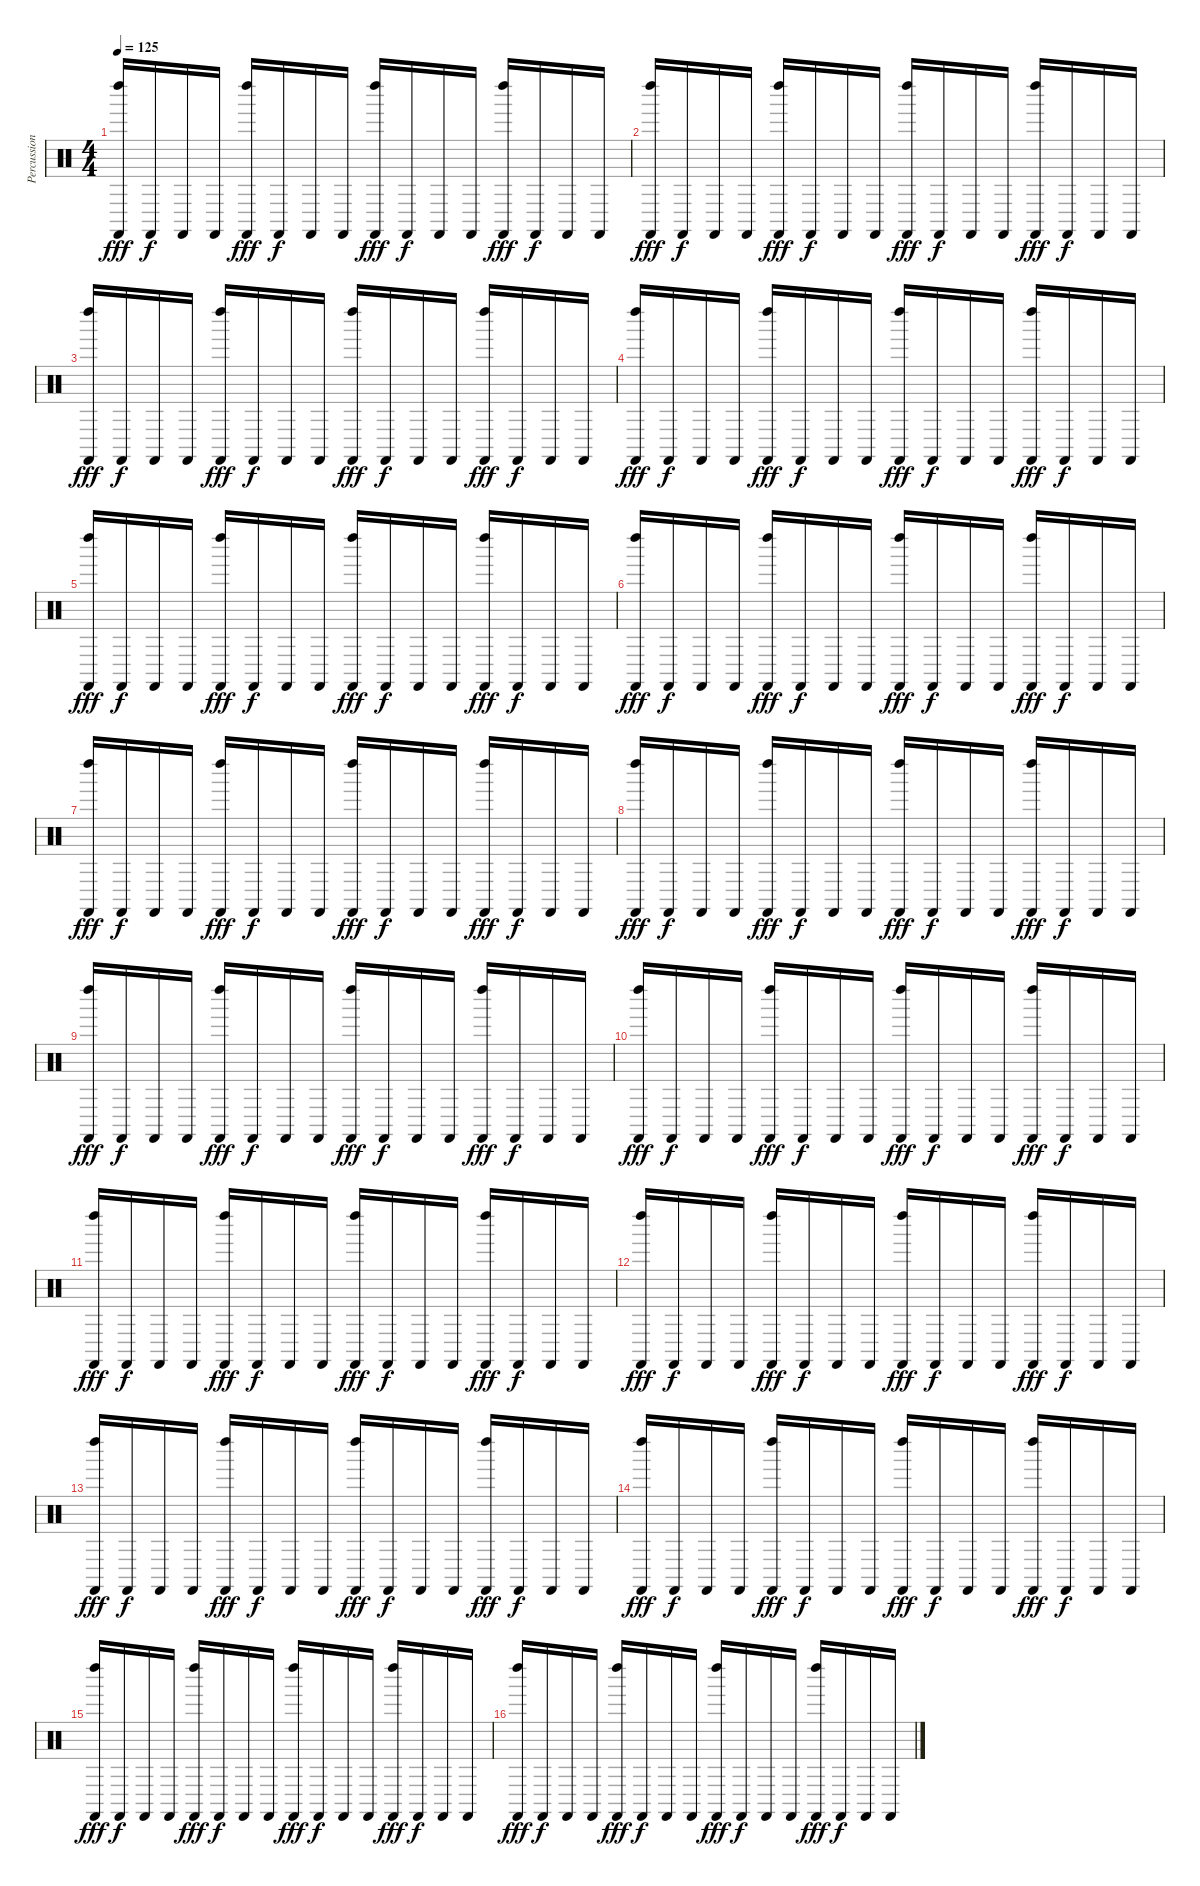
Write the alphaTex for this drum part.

\track ("Percussion Boris" "Percussion") {instrument percussion}
\staff {score}
\articulation defaults
\ts (4 4)
\tempo 125
\clef neutral
\ks c
("Castanets (hit)" "Left Maraca (hit)").16{dy fff} "Castanets (hit)".16{dy f} "Castanets (hit)".16 "Castanets (hit)".16 ("Castanets (hit)" "Left Maraca (hit)").16{dy fff} "Castanets (hit)".16{dy f} "Castanets (hit)".16 "Castanets (hit)".16 ("Castanets (hit)" "Left Maraca (hit)").16{dy fff} "Castanets (hit)".16{dy f} "Castanets (hit)".16 "Castanets (hit)".16 ("Castanets (hit)" "Left Maraca (hit)").16{dy fff} "Castanets (hit)".16{dy f} "Castanets (hit)".16 "Castanets (hit)".16 |
("Castanets (hit)" "Left Maraca (hit)").16{dy fff} "Castanets (hit)".16{dy f} "Castanets (hit)".16 "Castanets (hit)".16 ("Castanets (hit)" "Left Maraca (hit)").16{dy fff} "Castanets (hit)".16{dy f} "Castanets (hit)".16 "Castanets (hit)".16 ("Castanets (hit)" "Left Maraca (hit)").16{dy fff} "Castanets (hit)".16{dy f} "Castanets (hit)".16 "Castanets (hit)".16 ("Castanets (hit)" "Left Maraca (hit)").16{dy fff} "Castanets (hit)".16{dy f} "Castanets (hit)".16 "Castanets (hit)".16 |
("Castanets (hit)" "Left Maraca (hit)").16{dy fff} "Castanets (hit)".16{dy f} "Castanets (hit)".16 "Castanets (hit)".16 ("Castanets (hit)" "Left Maraca (hit)").16{dy fff} "Castanets (hit)".16{dy f} "Castanets (hit)".16 "Castanets (hit)".16 ("Castanets (hit)" "Left Maraca (hit)").16{dy fff} "Castanets (hit)".16{dy f} "Castanets (hit)".16 "Castanets (hit)".16 ("Castanets (hit)" "Left Maraca (hit)").16{dy fff} "Castanets (hit)".16{dy f} "Castanets (hit)".16 "Castanets (hit)".16 |
("Castanets (hit)" "Left Maraca (hit)").16{dy fff} "Castanets (hit)".16{dy f} "Castanets (hit)".16 "Castanets (hit)".16 ("Castanets (hit)" "Left Maraca (hit)").16{dy fff} "Castanets (hit)".16{dy f} "Castanets (hit)".16 "Castanets (hit)".16 ("Castanets (hit)" "Left Maraca (hit)").16{dy fff} "Castanets (hit)".16{dy f} "Castanets (hit)".16 "Castanets (hit)".16 ("Castanets (hit)" "Left Maraca (hit)").16{dy fff} "Castanets (hit)".16{dy f} "Castanets (hit)".16 "Castanets (hit)".16 |
("Castanets (hit)" "Left Maraca (hit)").16{dy fff} "Castanets (hit)".16{dy f} "Castanets (hit)".16 "Castanets (hit)".16 ("Castanets (hit)" "Left Maraca (hit)").16{dy fff} "Castanets (hit)".16{dy f} "Castanets (hit)".16 "Castanets (hit)".16 ("Castanets (hit)" "Left Maraca (hit)").16{dy fff} "Castanets (hit)".16{dy f} "Castanets (hit)".16 "Castanets (hit)".16 ("Castanets (hit)" "Left Maraca (hit)").16{dy fff} "Castanets (hit)".16{dy f} "Castanets (hit)".16 "Castanets (hit)".16 |
("Castanets (hit)" "Left Maraca (hit)").16{dy fff} "Castanets (hit)".16{dy f} "Castanets (hit)".16 "Castanets (hit)".16 ("Castanets (hit)" "Left Maraca (hit)").16{dy fff} "Castanets (hit)".16{dy f} "Castanets (hit)".16 "Castanets (hit)".16 ("Castanets (hit)" "Left Maraca (hit)").16{dy fff} "Castanets (hit)".16{dy f} "Castanets (hit)".16 "Castanets (hit)".16 ("Castanets (hit)" "Left Maraca (hit)").16{dy fff} "Castanets (hit)".16{dy f} "Castanets (hit)".16 "Castanets (hit)".16 |
("Castanets (hit)" "Left Maraca (hit)").16{dy fff} "Castanets (hit)".16{dy f} "Castanets (hit)".16 "Castanets (hit)".16 ("Castanets (hit)" "Left Maraca (hit)").16{dy fff} "Castanets (hit)".16{dy f} "Castanets (hit)".16 "Castanets (hit)".16 ("Castanets (hit)" "Left Maraca (hit)").16{dy fff} "Castanets (hit)".16{dy f} "Castanets (hit)".16 "Castanets (hit)".16 ("Castanets (hit)" "Left Maraca (hit)").16{dy fff} "Castanets (hit)".16{dy f} "Castanets (hit)".16 "Castanets (hit)".16 |
("Castanets (hit)" "Left Maraca (hit)").16{dy fff} "Castanets (hit)".16{dy f} "Castanets (hit)".16 "Castanets (hit)".16 ("Castanets (hit)" "Left Maraca (hit)").16{dy fff} "Castanets (hit)".16{dy f} "Castanets (hit)".16 "Castanets (hit)".16 ("Castanets (hit)" "Left Maraca (hit)").16{dy fff} "Castanets (hit)".16{dy f} "Castanets (hit)".16 "Castanets (hit)".16 ("Castanets (hit)" "Left Maraca (hit)").16{dy fff} "Castanets (hit)".16{dy f} "Castanets (hit)".16 "Castanets (hit)".16 |
("Castanets (hit)" "Left Maraca (hit)").16{dy fff} "Castanets (hit)".16{dy f} "Castanets (hit)".16 "Castanets (hit)".16 ("Castanets (hit)" "Left Maraca (hit)").16{dy fff} "Castanets (hit)".16{dy f} "Castanets (hit)".16 "Castanets (hit)".16 ("Castanets (hit)" "Left Maraca (hit)").16{dy fff} "Castanets (hit)".16{dy f} "Castanets (hit)".16 "Castanets (hit)".16 ("Castanets (hit)" "Left Maraca (hit)").16{dy fff} "Castanets (hit)".16{dy f} "Castanets (hit)".16 "Castanets (hit)".16 |
("Castanets (hit)" "Left Maraca (hit)").16{dy fff} "Castanets (hit)".16{dy f} "Castanets (hit)".16 "Castanets (hit)".16 ("Castanets (hit)" "Left Maraca (hit)").16{dy fff} "Castanets (hit)".16{dy f} "Castanets (hit)".16 "Castanets (hit)".16 ("Castanets (hit)" "Left Maraca (hit)").16{dy fff} "Castanets (hit)".16{dy f} "Castanets (hit)".16 "Castanets (hit)".16 ("Castanets (hit)" "Left Maraca (hit)").16{dy fff} "Castanets (hit)".16{dy f} "Castanets (hit)".16 "Castanets (hit)".16 |
("Castanets (hit)" "Left Maraca (hit)").16{dy fff} "Castanets (hit)".16{dy f} "Castanets (hit)".16 "Castanets (hit)".16 ("Castanets (hit)" "Left Maraca (hit)").16{dy fff} "Castanets (hit)".16{dy f} "Castanets (hit)".16 "Castanets (hit)".16 ("Castanets (hit)" "Left Maraca (hit)").16{dy fff} "Castanets (hit)".16{dy f} "Castanets (hit)".16 "Castanets (hit)".16 ("Castanets (hit)" "Left Maraca (hit)").16{dy fff} "Castanets (hit)".16{dy f} "Castanets (hit)".16 "Castanets (hit)".16 |
("Castanets (hit)" "Left Maraca (hit)").16{dy fff} "Castanets (hit)".16{dy f} "Castanets (hit)".16 "Castanets (hit)".16 ("Castanets (hit)" "Left Maraca (hit)").16{dy fff} "Castanets (hit)".16{dy f} "Castanets (hit)".16 "Castanets (hit)".16 ("Castanets (hit)" "Left Maraca (hit)").16{dy fff} "Castanets (hit)".16{dy f} "Castanets (hit)".16 "Castanets (hit)".16 ("Castanets (hit)" "Left Maraca (hit)").16{dy fff} "Castanets (hit)".16{dy f} "Castanets (hit)".16 "Castanets (hit)".16 |
("Castanets (hit)" "Left Maraca (hit)").16{dy fff} "Castanets (hit)".16{dy f} "Castanets (hit)".16 "Castanets (hit)".16 ("Castanets (hit)" "Left Maraca (hit)").16{dy fff} "Castanets (hit)".16{dy f} "Castanets (hit)".16 "Castanets (hit)".16 ("Castanets (hit)" "Left Maraca (hit)").16{dy fff} "Castanets (hit)".16{dy f} "Castanets (hit)".16 "Castanets (hit)".16 ("Castanets (hit)" "Left Maraca (hit)").16{dy fff} "Castanets (hit)".16{dy f} "Castanets (hit)".16 "Castanets (hit)".16 |
("Castanets (hit)" "Left Maraca (hit)").16{dy fff} "Castanets (hit)".16{dy f} "Castanets (hit)".16 "Castanets (hit)".16 ("Castanets (hit)" "Left Maraca (hit)").16{dy fff} "Castanets (hit)".16{dy f} "Castanets (hit)".16 "Castanets (hit)".16 ("Castanets (hit)" "Left Maraca (hit)").16{dy fff} "Castanets (hit)".16{dy f} "Castanets (hit)".16 "Castanets (hit)".16 ("Castanets (hit)" "Left Maraca (hit)").16{dy fff} "Castanets (hit)".16{dy f} "Castanets (hit)".16 "Castanets (hit)".16 |
("Castanets (hit)" "Left Maraca (hit)").16{dy fff} "Castanets (hit)".16{dy f} "Castanets (hit)".16 "Castanets (hit)".16 ("Castanets (hit)" "Left Maraca (hit)").16{dy fff} "Castanets (hit)".16{dy f} "Castanets (hit)".16 "Castanets (hit)".16 ("Castanets (hit)" "Left Maraca (hit)").16{dy fff} "Castanets (hit)".16{dy f} "Castanets (hit)".16 "Castanets (hit)".16 ("Castanets (hit)" "Left Maraca (hit)").16{dy fff} "Castanets (hit)".16{dy f} "Castanets (hit)".16 "Castanets (hit)".16 |
("Castanets (hit)" "Left Maraca (hit)").16{dy fff} "Castanets (hit)".16{dy f} "Castanets (hit)".16 "Castanets (hit)".16 ("Castanets (hit)" "Left Maraca (hit)").16{dy fff} "Castanets (hit)".16{dy f} "Castanets (hit)".16 "Castanets (hit)".16 ("Castanets (hit)" "Left Maraca (hit)").16{dy fff} "Castanets (hit)".16{dy f} "Castanets (hit)".16 "Castanets (hit)".16 ("Castanets (hit)" "Left Maraca (hit)").16{dy fff} "Castanets (hit)".16{dy f} "Castanets (hit)".16 "Castanets (hit)".16
